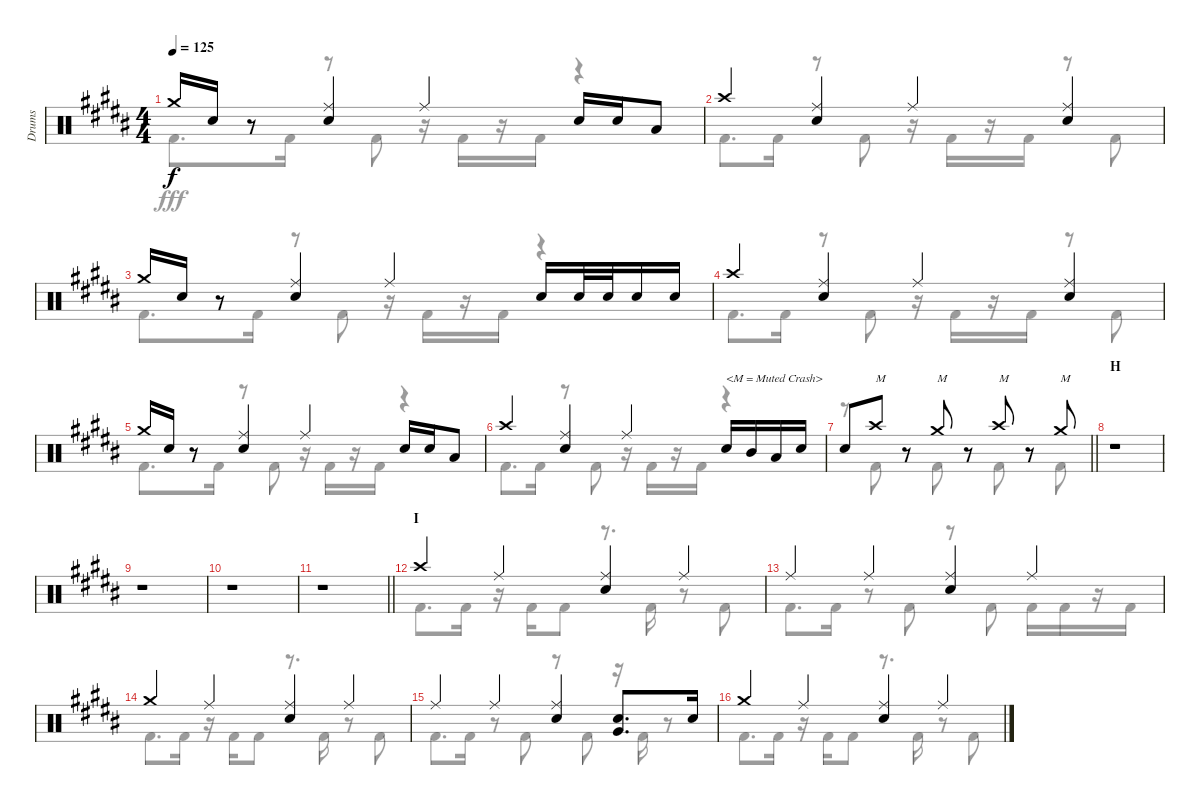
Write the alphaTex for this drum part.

\track ("Drums" "Drums") {instrument percussion}
\staff {score}
\articulation defaults
\voice
\ts (4 4)
\tempo 125
\clef neutral
\ks b "Crash medium (hit)".16{dy f} "Snare (hit) 2".16
r.8 ("Ride (middle)" "Snare (hit) 2").4 "Ride (middle)".4 "Snare (hit) 2".16 "Snare (hit) 2".16 "Low Tom (hit)".8 |
"Crash high (hit)".4 ("Ride (middle)" "Snare (hit) 2").4 "Ride (middle)".4 ("Ride (middle)" "Snare (hit) 2").4 |
"Crash medium (hit)".16 "Snare (hit) 2".16 r.8 ("Ride (middle)" "Snare (hit) 2").4 "Ride (middle)".4 "Snare (hit) 2".16 "Snare (hit) 2".32 "Snare (hit) 2".32 "Snare (hit) 2".16 "Snare (hit) 2".16 |
"Crash high (hit)".4 ("Ride (middle)" "Snare (hit) 2").4 "Ride (middle)".4 ("Ride (middle)" "Snare (hit) 2").4 |
"Crash medium (hit)".16 "Snare (hit) 2".16 r.8 ("Ride (middle)" "Snare (hit) 2").4 "Ride (middle)".4 "Snare (hit) 2".16 "Snare (hit) 2".16 "Low Tom (hit)".8 |
"Crash high (hit)".4 ("Ride (middle)" "Snare (hit) 2").4 "Ride (middle)".4 "Snare (hit) 2".16{txt "<M = Muted Crash>"} "Mid Tom (hit)".16 "Low Tom (hit)".16 "Snare (hit) 2".16 |
\barLineRight lightlight "Snare (hit) 2".8 "Crash high (hit)".8{txt "M"}
r.8 "Crash medium (hit)".8{txt "M"} r.8 "Crash high (hit)".8{txt "M"} r.8 "Crash medium (hit)".8{txt "M"} |
\section ("" "H")
r.1 |
r.1 |
r.1 |
\barLineRight lightlight
r.1 |
\section ("" "I")
"Crash high (hit)".4 "Ride (middle)".4 ("Ride (middle)" "Snare (hit) 2").4 "Ride (middle)".4 |
"Ride (middle)".4 "Ride (middle)".4 ("Ride (middle)" "Snare (hit) 2").4 "Ride (middle)".4 |
"Crash medium (hit)".4 "Ride (middle)".4 ("Ride (middle)" "Snare (hit) 2").4 "Ride (middle)".4 |
"Ride (middle)".4 "Ride (middle)".4 ("Ride (middle)" "Snare (hit) 2").4 ("Snare (hit) 2" "Very Low Tom (hit)").8{d} "Snare (hit) 2".16 |
"Crash medium (hit)".4 "Ride (middle)".4 ("Ride (middle)" "Snare (hit) 2").4 "Ride (middle)".4
\voice
\clef neutral
\ottava regular
\simile none
\ks b "Kick (hit) 2".8{d dy fff} "Kick (hit) 2".16
r.8 "Kick (hit) 2".8 r.16 "Kick (hit) 2".16 r.16 "Kick (hit) 2".16 r.4 |
"Kick (hit) 2".8{d} "Kick (hit) 2".16 r.8 "Kick (hit) 2".8 r.16 "Kick (hit) 2".16 r.16 "Kick (hit) 2".16 r.8 "Kick (hit) 2".8 |
"Kick (hit) 2".8{d} "Kick (hit) 2".16 r.8 "Kick (hit) 2".8 r.16 "Kick (hit) 2".16 r.16 "Kick (hit) 2".16 r.4 |
"Kick (hit) 2".8{d} "Kick (hit) 2".16 r.8 "Kick (hit) 2".8 r.16 "Kick (hit) 2".16 r.16 "Kick (hit) 2".16 r.8 "Kick (hit) 2".8 |
"Kick (hit) 2".8{d} "Kick (hit) 2".16 r.8 "Kick (hit) 2".8 r.16 "Kick (hit) 2".16 r.16 "Kick (hit) 2".16 r.4 |
"Kick (hit) 2".8{d} "Kick (hit) 2".16 r.8 "Kick (hit) 2".8 r.16 "Kick (hit) 2".16 r.16 "Kick (hit) 2".16 r.4 |
\barLineRight lightlight
r.8 "Kick (hit) 2".8 r.8 "Kick (hit) 2".8 r.8 "Kick (hit) 2".8 r.8 "Kick (hit) 2".8 |
r.1 |
r.1 |
r.1 |
\barLineRight lightlight
r.1 |
"Kick (hit) 2".8{d} "Kick (hit) 2".16 r.16 "Kick (hit) 2".16 "Kick (hit) 2".8 r.8{d} "Kick (hit) 2".16 r.8 "Kick (hit) 2".8 |
"Kick (hit) 2".8{d} "Kick (hit) 2".16 r.8 "Kick (hit) 2".8 r.8 "Kick (hit) 2".8 "Kick (hit) 2".16 "Kick (hit) 2".16 r.16 "Kick (hit) 2".16 |
"Kick (hit) 2".8{d} "Kick (hit) 2".16 r.16 "Kick (hit) 2".16 "Kick (hit) 2".8 r.8{d} "Kick (hit) 2".16 r.8 "Kick (hit) 2".8 |
"Kick (hit) 2".8{d} "Kick (hit) 2".16 r.8 "Kick (hit) 2".8 r.8 "Kick (hit) 2".8 r.16 "Kick (hit) 2".16 r.8 |
"Kick (hit) 2".8{d} "Kick (hit) 2".16 r.16 "Kick (hit) 2".16 "Kick (hit) 2".8 r.8{d} "Kick (hit) 2".16 r.8 "Kick (hit) 2".8
